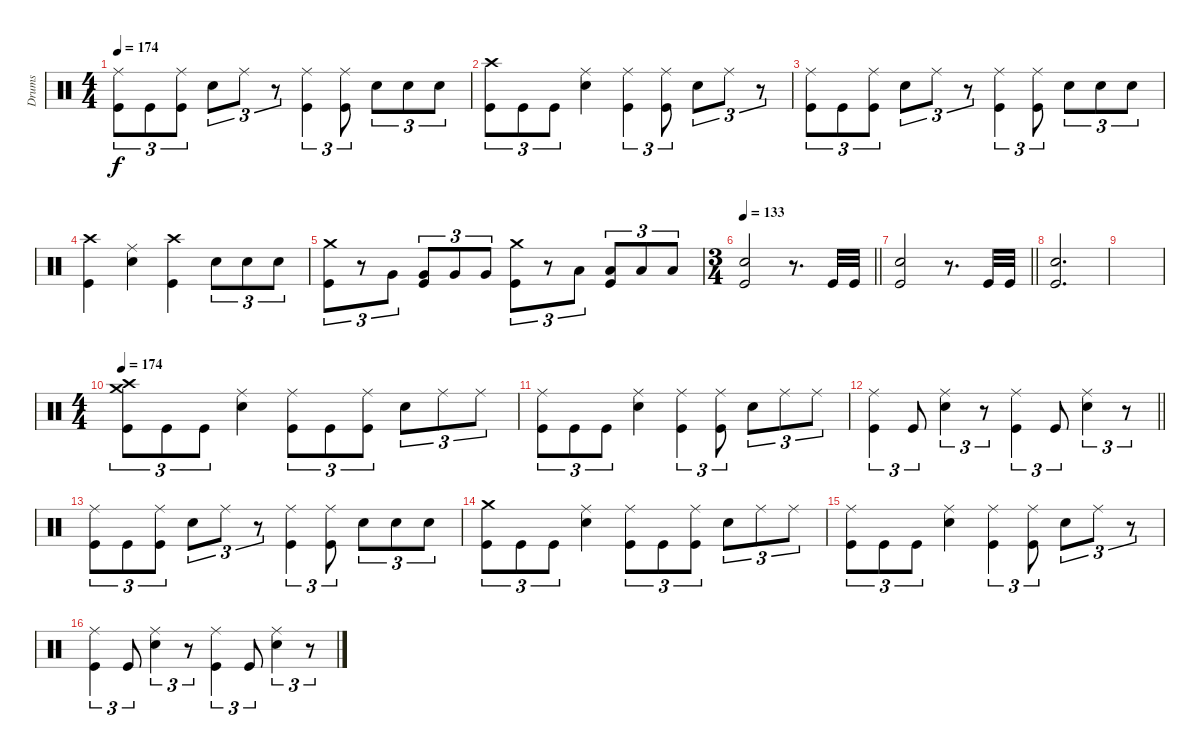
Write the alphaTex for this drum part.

\track ("Drums" "Drums") {instrument percussion}
\staff {score}
\articulation defaults
\ts (4 4)
\tempo 174
\clef neutral
\ks c
("Ride (middle)" "Kick (hit)").8{tu (3 2) dy f} "Kick (hit)".8{tu (3 2)} ("Ride (middle)" "Kick (hit)").8{tu (3 2)} "Snare (hit) 2".8{tu (3 2)} "Ride (middle)".8{tu (3 2)} r.8{tu (3 2)} ("Ride (middle)" "Kick (hit)").4{tu (3 2)} ("Ride (middle)" "Kick (hit)").8{tu (3 2)} "Snare (hit) 2".8{tu (3 2)} "Snare (hit) 2".8{tu (3 2)} "Snare (hit) 2".8{tu (3 2)} |
("Crash high (hit)" "Kick (hit)").8{tu (3 2)} "Kick (hit)".8{tu (3 2)} "Kick (hit)".8{tu (3 2)} ("Ride (middle)" "Snare (hit) 2").4 ("Ride (middle)" "Kick (hit)").4{tu (3 2)} ("Ride (middle)" "Kick (hit)").8{tu (3 2)} "Snare (hit) 2".8{tu (3 2)} "Ride (middle)".8{tu (3 2)} r.8{tu (3 2)} |
("Ride (middle)" "Kick (hit)").8{tu (3 2)} "Kick (hit)".8{tu (3 2)} ("Ride (middle)" "Kick (hit)").8{tu (3 2)} "Snare (hit) 2".8{tu (3 2)} "Ride (middle)".8{tu (3 2)} r.8{tu (3 2)} ("Ride (middle)" "Kick (hit)").4{tu (3 2)} ("Ride (middle)" "Kick (hit)").8{tu (3 2)} "Snare (hit) 2".8{tu (3 2)} "Snare (hit) 2".8{tu (3 2)} "Snare (hit) 2".8{tu (3 2)} |
("Crash high (hit)" "Kick (hit)").4 ("Ride (middle)" "Snare (hit) 2").4 ("Crash high (hit)" "Kick (hit)").4 "Snare (hit) 2".8{tu (3 2)} "Snare (hit) 2".8{tu (3 2)} "Snare (hit) 2".8{tu (3 2)} |
("Crash medium (hit)" "Kick (hit)").8{tu (3 2)} r.8{tu (3 2)} "Very Low Tom (hit)".8{tu (3 2)} ("Very Low Tom (hit)" "Kick (hit)").8{tu (3 2)} "Very Low Tom (hit)".8{tu (3 2)} "Very Low Tom (hit)".8{tu (3 2)} ("Crash medium (hit)" "Kick (hit)").8{tu (3 2)} r.8{tu (3 2)} "Low Floor Tom (hit)".8{tu (3 2)} ("Low Floor Tom (hit)" "Kick (hit)").8{tu (3 2)} "Low Floor Tom (hit)".8{tu (3 2)} "Low Floor Tom (hit)".8{tu (3 2)} |
\ts (3 4)
\tempo 133
\barLineRight lightlight
("Snare (hit) 2" "Kick (hit)").2 r.8{d} "Kick (hit)".32 "Kick (hit)".32 |
\barLineRight lightlight
("Snare (hit) 2" "Kick (hit)").2 r.8{d} "Kick (hit)".32 "Kick (hit)".32 |
("Snare (hit) 2" "Kick (hit)").2{d} |
|
\ts (4 4)
\tempo 174
("Crash medium (hit)" "Crash high (hit)" "Kick (hit)").8{tu (3 2)} "Kick (hit)".8{tu (3 2)} "Kick (hit)".8{tu (3 2)} ("Ride (middle)" "Snare (hit) 2").4 ("Ride (middle)" "Kick (hit)").8{tu (3 2)} "Kick (hit)".8{tu (3 2)} ("Ride (middle)" "Kick (hit)").8{tu (3 2)} "Snare (hit) 2".8{tu (3 2)} "Ride (middle)".8{tu (3 2)} "Ride (middle)".8{tu (3 2)} |
("Ride (middle)" "Kick (hit)").8{tu (3 2)} "Kick (hit)".8{tu (3 2)} "Kick (hit)".8{tu (3 2)} ("Ride (middle)" "Snare (hit) 2").4 ("Ride (middle)" "Kick (hit)").4{tu (3 2)} ("Ride (middle)" "Kick (hit)").8{tu (3 2)} "Snare (hit) 2".8{tu (3 2)} "Ride (middle)".8{tu (3 2)} "Ride (middle)".8{tu (3 2)} |
\barLineRight lightlight
("Ride (middle)" "Kick (hit)").4{tu (3 2)} "Kick (hit)".8{tu (3 2)} ("Ride (middle)" "Snare (hit) 2").4{tu (3 2)} r.8{tu (3 2)} ("Ride (middle)" "Kick (hit)").4{tu (3 2)} "Kick (hit)".8{tu (3 2)} ("Ride (middle)" "Snare (hit) 2").4{tu (3 2)} r.8{tu (3 2)} |
("Ride (middle)" "Kick (hit)").8{tu (3 2)} "Kick (hit)".8{tu (3 2)} ("Ride (middle)" "Kick (hit)").8{tu (3 2)} "Snare (hit) 2".8{tu (3 2)} "Ride (middle)".8{tu (3 2)} r.8{tu (3 2)} ("Ride (middle)" "Kick (hit)").4{tu (3 2)} ("Ride (middle)" "Kick (hit)").8{tu (3 2)} "Snare (hit) 2".8{tu (3 2)} "Snare (hit) 2".8{tu (3 2)} "Snare (hit) 2".8{tu (3 2)} |
("Crash medium (hit)" "Kick (hit)").8{tu (3 2)} "Kick (hit)".8{tu (3 2)} "Kick (hit)".8{tu (3 2)} ("Ride (middle)" "Snare (hit) 2").4 ("Ride (middle)" "Kick (hit)").8{tu (3 2)} "Kick (hit)".8{tu (3 2)} ("Ride (middle)" "Kick (hit)").8{tu (3 2)} "Snare (hit) 2".8{tu (3 2)} "Ride (middle)".8{tu (3 2)} "Ride (middle)".8{tu (3 2)} |
("Ride (middle)" "Kick (hit)").8{tu (3 2)} "Kick (hit)".8{tu (3 2)} "Kick (hit)".8{tu (3 2)} ("Ride (middle)" "Snare (hit) 2").4 ("Ride (middle)" "Kick (hit)").4{tu (3 2)} ("Ride (middle)" "Kick (hit)").8{tu (3 2)} "Snare (hit) 2".8{tu (3 2)} "Ride (middle)".8{tu (3 2)} r.8{tu (3 2)} |
("Ride (middle)" "Kick (hit)").4{tu (3 2)} "Kick (hit)".8{tu (3 2)} ("Ride (middle)" "Snare (hit) 2").4{tu (3 2)} r.8{tu (3 2)} ("Ride (middle)" "Kick (hit)").4{tu (3 2)} "Kick (hit)".8{tu (3 2)} ("Ride (middle)" "Snare (hit) 2").4{tu (3 2)} r.8{tu (3 2)}
